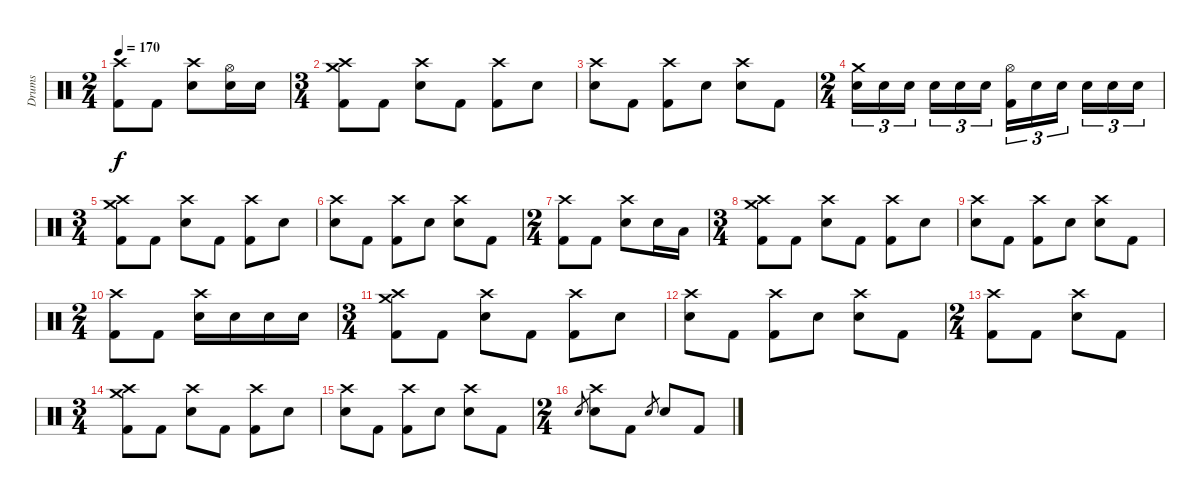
\track ("Drums" "Drums") {instrument percussion}
\staff {score}
\articulation defaults
\ts (2 4)
\tempo 170
\clef neutral
\ks c
("Crash high (hit)" "Kick (hit) 2").8{dy f} "Kick (hit) 2".8 ("Crash high (hit)" "Electric Snare (hit)").8 ("Hi-Hat (open)" "Electric Snare (hit)").16 "Electric Snare (hit)".16 |
\ts (3 4)
("Crash medium (hit)" "Crash high (hit)" "Kick (hit) 2").8 "Kick (hit) 2".8 ("Crash high (hit)" "Electric Snare (hit)").8 "Kick (hit) 2".8 ("Crash high (hit)" "Kick (hit) 2").8 "Electric Snare (hit)".8 |
("Crash high (hit)" "Electric Snare (hit)").8 "Kick (hit) 2".8 ("Crash high (hit)" "Kick (hit) 2").8 "Electric Snare (hit)".8 ("Crash high (hit)" "Electric Snare (hit)").8 "Kick (hit) 2".8 |
\ts (2 4)
("Crash medium (hit)" "Electric Snare (hit)").16{tu (3 2)} "Electric Snare (hit)".16{tu (3 2)} "Electric Snare (hit)".16{tu (3 2) beam splitsecondary} "Electric Snare (hit)".16{tu (3 2)} "Electric Snare (hit)".16{tu (3 2)} "Electric Snare (hit)".16{tu (3 2)} ("Hi-Hat (open)" "Kick (hit) 2").16{tu (3 2)} "Electric Snare (hit)".16{tu (3 2)} "Electric Snare (hit)".16{tu (3 2) beam splitsecondary} "Electric Snare (hit)".16{tu (3 2)} "Electric Snare (hit)".16{tu (3 2)} "Electric Snare (hit)".16{tu (3 2)} |
\ts (3 4)
("Crash medium (hit)" "Crash high (hit)" "Kick (hit) 2").8 "Kick (hit) 2".8 ("Crash high (hit)" "Electric Snare (hit)").8 "Kick (hit) 2".8 ("Crash high (hit)" "Kick (hit) 2").8 "Electric Snare (hit)".8 |
("Crash high (hit)" "Electric Snare (hit)").8 "Kick (hit) 2".8 ("Crash high (hit)" "Kick (hit) 2").8 "Electric Snare (hit)".8 ("Crash high (hit)" "Electric Snare (hit)").8 "Kick (hit) 2".8 |
\ts (2 4)
("Crash high (hit)" "Kick (hit) 2").8 "Kick (hit) 2".8 ("Crash high (hit)" "Electric Snare (hit)").8 "Electric Snare (hit)".16 "Low Tom (hit)".16 |
\ts (3 4)
("Crash medium (hit)" "Crash high (hit)" "Kick (hit) 2").8 "Kick (hit) 2".8 ("Crash high (hit)" "Electric Snare (hit)").8 "Kick (hit) 2".8 ("Crash high (hit)" "Kick (hit) 2").8 "Electric Snare (hit)".8 |
("Crash high (hit)" "Electric Snare (hit)").8 "Kick (hit) 2".8 ("Crash high (hit)" "Kick (hit) 2").8 "Electric Snare (hit)".8 ("Crash high (hit)" "Electric Snare (hit)").8 "Kick (hit) 2".8 |
\ts (2 4)
("Crash high (hit)" "Kick (hit) 2").8 "Kick (hit) 2".8 ("Crash high (hit)" "Electric Snare (hit)").16 "Electric Snare (hit)".16 "Electric Snare (hit)".16 "Electric Snare (hit)".16 |
\ts (3 4)
("Crash medium (hit)" "Crash high (hit)" "Kick (hit) 2").8 "Kick (hit) 2".8 ("Crash high (hit)" "Electric Snare (hit)").8 "Kick (hit) 2".8 ("Crash high (hit)" "Kick (hit) 2").8 "Electric Snare (hit)".8 |
("Crash high (hit)" "Electric Snare (hit)").8 "Kick (hit) 2".8 ("Crash high (hit)" "Kick (hit) 2").8 "Electric Snare (hit)".8 ("Crash high (hit)" "Electric Snare (hit)").8 "Kick (hit) 2".8 |
\ts (2 4)
("Crash high (hit)" "Kick (hit) 2").8 "Kick (hit) 2".8 ("Crash high (hit)" "Electric Snare (hit)").8 "Kick (hit) 2".8 |
\ts (3 4)
("Crash medium (hit)" "Crash high (hit)" "Kick (hit) 2").8 "Kick (hit) 2".8 ("Crash high (hit)" "Electric Snare (hit)").8 "Kick (hit) 2".8 ("Crash high (hit)" "Kick (hit) 2").8 "Electric Snare (hit)".8 |
("Crash high (hit)" "Electric Snare (hit)").8 "Kick (hit) 2".8 ("Crash high (hit)" "Kick (hit) 2").8 "Electric Snare (hit)".8 ("Crash high (hit)" "Electric Snare (hit)").8 "Kick (hit) 2".8 |
\ts (2 4)
"Electric Snare (hit)".8{gr} ("Crash high (hit)" "Electric Snare (hit)").8 "Kick (hit) 2".8 "Electric Snare (hit)".8{gr} "Electric Snare (hit)".8 "Kick (hit) 2".8
